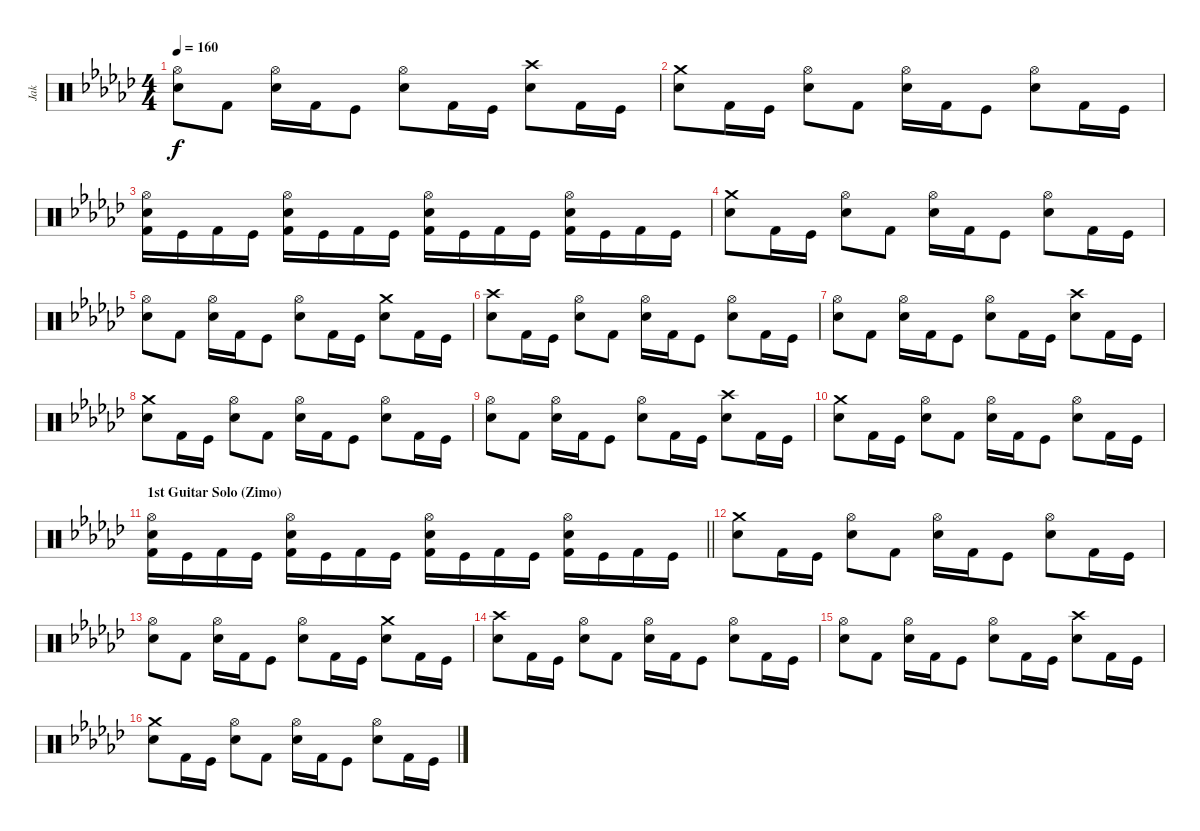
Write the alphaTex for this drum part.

\track ("Jak" "Jak") {instrument percussion}
\staff {score}
\articulation defaults
\ts (4 4)
\tempo 160
\clef neutral
\ks ebminor
("Hi-Hat (open)" "Snare (hit) 2").8{dy f} "Kick (hit) 2".8 ("Hi-Hat (open)" "Snare (hit) 2").16 "Kick (hit) 2".16 "Kick (hit)".8 ("Hi-Hat (open)" "Snare (hit) 2").8 "Kick (hit) 2".16 "Kick (hit)".16 ("Crash high (hit)" "Snare (hit) 2").8 "Kick (hit) 2".16 "Kick (hit)".16 |
("Crash medium (hit)" "Snare (hit) 2").8 "Kick (hit) 2".16 "Kick (hit)".16 ("Hi-Hat (open)" "Snare (hit) 2").8 "Kick (hit) 2".8 ("Hi-Hat (open)" "Snare (hit) 2").16 "Kick (hit) 2".16 "Kick (hit)".8 ("Hi-Hat (open)" "Snare (hit) 2").8 "Kick (hit) 2".16 "Kick (hit)".16 |
("Hi-Hat (open)" "Snare (hit) 2" "Kick (hit) 2").16 "Kick (hit)".16 "Kick (hit) 2".16 "Kick (hit)".16 ("Hi-Hat (open)" "Snare (hit) 2" "Kick (hit) 2").16 "Kick (hit)".16 "Kick (hit) 2".16 "Kick (hit)".16 ("Hi-Hat (open)" "Snare (hit) 2" "Kick (hit) 2").16 "Kick (hit)".16 "Kick (hit) 2".16 "Kick (hit)".16 ("Hi-Hat (open)" "Snare (hit) 2" "Kick (hit) 2").16 "Kick (hit)".16 "Kick (hit) 2".16 "Kick (hit)".16 |
("Crash medium (hit)" "Snare (hit) 2").8 "Kick (hit) 2".16 "Kick (hit)".16 ("Hi-Hat (open)" "Snare (hit) 2").8 "Kick (hit) 2".8 ("Hi-Hat (open)" "Snare (hit) 2").16 "Kick (hit) 2".16 "Kick (hit)".8 ("Hi-Hat (open)" "Snare (hit) 2").8 "Kick (hit) 2".16 "Kick (hit)".16 |
("Hi-Hat (open)" "Snare (hit) 2").8 "Kick (hit) 2".8 ("Hi-Hat (open)" "Snare (hit) 2").16 "Kick (hit) 2".16 "Kick (hit)".8 ("Hi-Hat (open)" "Snare (hit) 2").8 "Kick (hit) 2".16 "Kick (hit)".16 ("Crash medium (hit)" "Snare (hit) 2").8 "Kick (hit) 2".16 "Kick (hit)".16 |
("Crash high (hit)" "Snare (hit) 2").8 "Kick (hit) 2".16 "Kick (hit)".16 ("Hi-Hat (open)" "Snare (hit) 2").8 "Kick (hit) 2".8 ("Hi-Hat (open)" "Snare (hit) 2").16 "Kick (hit) 2".16 "Kick (hit)".8 ("Hi-Hat (open)" "Snare (hit) 2").8 "Kick (hit) 2".16 "Kick (hit)".16 |
("Hi-Hat (open)" "Snare (hit) 2").8 "Kick (hit) 2".8 ("Hi-Hat (open)" "Snare (hit) 2").16 "Kick (hit) 2".16 "Kick (hit)".8 ("Hi-Hat (open)" "Snare (hit) 2").8 "Kick (hit) 2".16 "Kick (hit)".16 ("Crash high (hit)" "Snare (hit) 2").8 "Kick (hit) 2".16 "Kick (hit)".16 |
("Crash medium (hit)" "Snare (hit) 2").8 "Kick (hit) 2".16 "Kick (hit)".16 ("Hi-Hat (open)" "Snare (hit) 2").8 "Kick (hit) 2".8 ("Hi-Hat (open)" "Snare (hit) 2").16 "Kick (hit) 2".16 "Kick (hit)".8 ("Hi-Hat (open)" "Snare (hit) 2").8 "Kick (hit) 2".16 "Kick (hit)".16 |
("Hi-Hat (open)" "Snare (hit) 2").8 "Kick (hit) 2".8 ("Hi-Hat (open)" "Snare (hit) 2").16 "Kick (hit) 2".16 "Kick (hit)".8 ("Hi-Hat (open)" "Snare (hit) 2").8 "Kick (hit) 2".16 "Kick (hit)".16 ("Crash high (hit)" "Snare (hit) 2").8 "Kick (hit) 2".16 "Kick (hit)".16 |
("Crash medium (hit)" "Snare (hit) 2").8 "Kick (hit) 2".16 "Kick (hit)".16 ("Hi-Hat (open)" "Snare (hit) 2").8 "Kick (hit) 2".8 ("Hi-Hat (open)" "Snare (hit) 2").16 "Kick (hit) 2".16 "Kick (hit)".8 ("Hi-Hat (open)" "Snare (hit) 2").8 "Kick (hit) 2".16 "Kick (hit)".16 |
\section ("" "1st Guitar Solo (Zimo)")
\barLineRight lightlight
("Hi-Hat (open)" "Snare (hit) 2" "Kick (hit) 2").16 "Kick (hit)".16 "Kick (hit) 2".16 "Kick (hit)".16 ("Hi-Hat (open)" "Snare (hit) 2" "Kick (hit) 2").16 "Kick (hit)".16 "Kick (hit) 2".16 "Kick (hit)".16 ("Hi-Hat (open)" "Snare (hit) 2" "Kick (hit) 2").16 "Kick (hit)".16 "Kick (hit) 2".16 "Kick (hit)".16 ("Hi-Hat (open)" "Snare (hit) 2" "Kick (hit) 2").16 "Kick (hit)".16 "Kick (hit) 2".16 "Kick (hit)".16 |
("Crash medium (hit)" "Snare (hit) 2").8 "Kick (hit) 2".16 "Kick (hit)".16 ("Hi-Hat (open)" "Snare (hit) 2").8 "Kick (hit) 2".8 ("Hi-Hat (open)" "Snare (hit) 2").16 "Kick (hit) 2".16 "Kick (hit)".8 ("Hi-Hat (open)" "Snare (hit) 2").8 "Kick (hit) 2".16 "Kick (hit)".16 |
("Hi-Hat (open)" "Snare (hit) 2").8 "Kick (hit) 2".8 ("Hi-Hat (open)" "Snare (hit) 2").16 "Kick (hit) 2".16 "Kick (hit)".8 ("Hi-Hat (open)" "Snare (hit) 2").8 "Kick (hit) 2".16 "Kick (hit)".16 ("Crash medium (hit)" "Snare (hit) 2").8 "Kick (hit) 2".16 "Kick (hit)".16 |
("Crash high (hit)" "Snare (hit) 2").8 "Kick (hit) 2".16 "Kick (hit)".16 ("Hi-Hat (open)" "Snare (hit) 2").8 "Kick (hit) 2".8 ("Hi-Hat (open)" "Snare (hit) 2").16 "Kick (hit) 2".16 "Kick (hit)".8 ("Hi-Hat (open)" "Snare (hit) 2").8 "Kick (hit) 2".16 "Kick (hit)".16 |
("Hi-Hat (open)" "Snare (hit) 2").8 "Kick (hit) 2".8 ("Hi-Hat (open)" "Snare (hit) 2").16 "Kick (hit) 2".16 "Kick (hit)".8 ("Hi-Hat (open)" "Snare (hit) 2").8 "Kick (hit) 2".16 "Kick (hit)".16 ("Crash high (hit)" "Snare (hit) 2").8 "Kick (hit) 2".16 "Kick (hit)".16 |
("Crash medium (hit)" "Snare (hit) 2").8 "Kick (hit) 2".16 "Kick (hit)".16 ("Hi-Hat (open)" "Snare (hit) 2").8 "Kick (hit) 2".8 ("Hi-Hat (open)" "Snare (hit) 2").16 "Kick (hit) 2".16 "Kick (hit)".8 ("Hi-Hat (open)" "Snare (hit) 2").8 "Kick (hit) 2".16 "Kick (hit)".16
